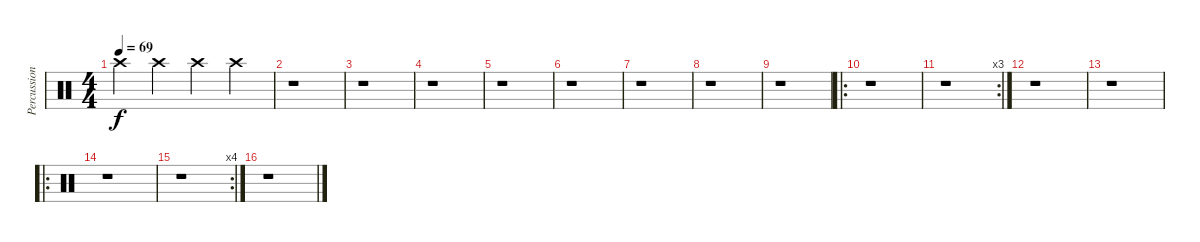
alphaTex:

\track ("Percussions" "Percussion") {instrument percussion}
\staff {score}
\articulation defaults
\ts (4 4)
\tempo 69
\clef neutral
\ks c "Crash high (hit)".4{dy f} "Crash high (hit)".4 "Crash high (hit)".4 "Crash high (hit)".4
|
r.1 |
r.1 |
r.1 |
r.1 |
r.1 |
r.1 |
r.1 |
r.1 |
\ro
r.1 |
\rc 3
r.1 |
r.1 |
r.1 |
\ro
r.1 |
\rc 4
r.1 |
r.1
